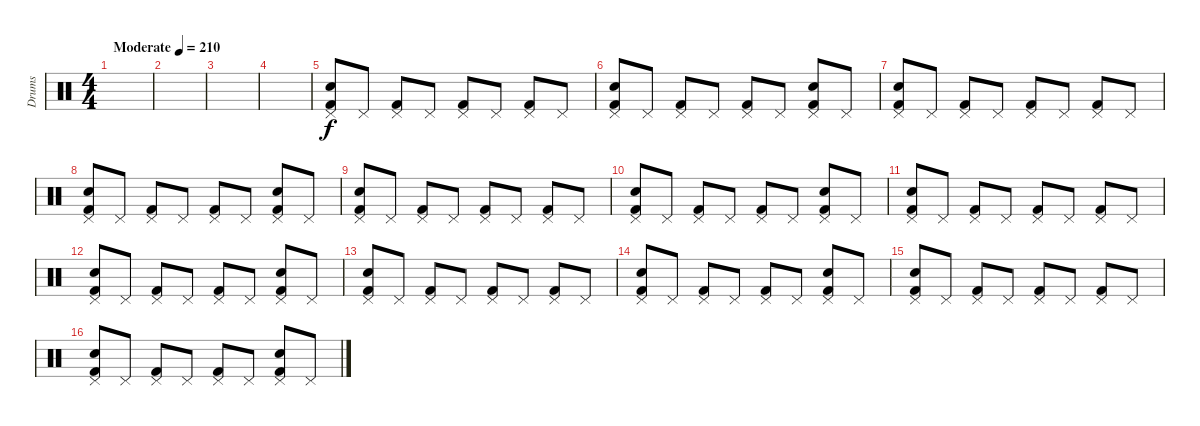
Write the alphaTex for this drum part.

\track ("Drums" "Drums") {instrument percussion}
\staff {score}
\articulation defaults
\ts (4 4)
\tempo (210 "Moderate")
\clef neutral
\ks c
|
|
|
|
("Kick (hit) 2" "Pedal Hi-Hat (hit)" "Snare (hit) 2").8 "Pedal Hi-Hat (hit)".8 ("Kick (hit) 2" "Pedal Hi-Hat (hit)").8 "Pedal Hi-Hat (hit)".8 ("Kick (hit) 2" "Pedal Hi-Hat (hit)").8 "Pedal Hi-Hat (hit)".8 ("Kick (hit) 2" "Pedal Hi-Hat (hit)").8 "Pedal Hi-Hat (hit)".8 |
("Kick (hit) 2" "Pedal Hi-Hat (hit)" "Snare (hit) 2").8 "Pedal Hi-Hat (hit)".8 ("Kick (hit) 2" "Pedal Hi-Hat (hit)").8 "Pedal Hi-Hat (hit)".8 ("Kick (hit) 2" "Pedal Hi-Hat (hit)").8 "Pedal Hi-Hat (hit)".8 ("Kick (hit) 2" "Pedal Hi-Hat (hit)" "Snare (hit) 2").8 "Pedal Hi-Hat (hit)".8 |
("Kick (hit) 2" "Pedal Hi-Hat (hit)" "Snare (hit) 2").8 "Pedal Hi-Hat (hit)".8 ("Kick (hit) 2" "Pedal Hi-Hat (hit)").8 "Pedal Hi-Hat (hit)".8 ("Kick (hit) 2" "Pedal Hi-Hat (hit)").8 "Pedal Hi-Hat (hit)".8 ("Kick (hit) 2" "Pedal Hi-Hat (hit)").8 "Pedal Hi-Hat (hit)".8 |
("Kick (hit) 2" "Pedal Hi-Hat (hit)" "Snare (hit) 2").8 "Pedal Hi-Hat (hit)".8 ("Kick (hit) 2" "Pedal Hi-Hat (hit)").8 "Pedal Hi-Hat (hit)".8 ("Kick (hit) 2" "Pedal Hi-Hat (hit)").8 "Pedal Hi-Hat (hit)".8 ("Kick (hit) 2" "Pedal Hi-Hat (hit)" "Snare (hit) 2").8 "Pedal Hi-Hat (hit)".8 |
("Kick (hit) 2" "Pedal Hi-Hat (hit)" "Snare (hit) 2").8 "Pedal Hi-Hat (hit)".8 ("Kick (hit) 2" "Pedal Hi-Hat (hit)").8 "Pedal Hi-Hat (hit)".8 ("Kick (hit) 2" "Pedal Hi-Hat (hit)").8 "Pedal Hi-Hat (hit)".8 ("Kick (hit) 2" "Pedal Hi-Hat (hit)").8 "Pedal Hi-Hat (hit)".8 |
("Kick (hit) 2" "Pedal Hi-Hat (hit)" "Snare (hit) 2").8 "Pedal Hi-Hat (hit)".8 ("Kick (hit) 2" "Pedal Hi-Hat (hit)").8 "Pedal Hi-Hat (hit)".8 ("Kick (hit) 2" "Pedal Hi-Hat (hit)").8 "Pedal Hi-Hat (hit)".8 ("Kick (hit) 2" "Pedal Hi-Hat (hit)" "Snare (hit) 2").8 "Pedal Hi-Hat (hit)".8 |
("Kick (hit) 2" "Pedal Hi-Hat (hit)" "Snare (hit) 2").8 "Pedal Hi-Hat (hit)".8 ("Kick (hit) 2" "Pedal Hi-Hat (hit)").8 "Pedal Hi-Hat (hit)".8 ("Kick (hit) 2" "Pedal Hi-Hat (hit)").8 "Pedal Hi-Hat (hit)".8 ("Kick (hit) 2" "Pedal Hi-Hat (hit)").8 "Pedal Hi-Hat (hit)".8 |
("Kick (hit) 2" "Pedal Hi-Hat (hit)" "Snare (hit) 2").8 "Pedal Hi-Hat (hit)".8 ("Kick (hit) 2" "Pedal Hi-Hat (hit)").8 "Pedal Hi-Hat (hit)".8 ("Kick (hit) 2" "Pedal Hi-Hat (hit)").8 "Pedal Hi-Hat (hit)".8 ("Kick (hit) 2" "Pedal Hi-Hat (hit)" "Snare (hit) 2").8 "Pedal Hi-Hat (hit)".8 |
("Kick (hit) 2" "Pedal Hi-Hat (hit)" "Snare (hit) 2").8 "Pedal Hi-Hat (hit)".8 ("Kick (hit) 2" "Pedal Hi-Hat (hit)").8 "Pedal Hi-Hat (hit)".8 ("Kick (hit) 2" "Pedal Hi-Hat (hit)").8 "Pedal Hi-Hat (hit)".8 ("Kick (hit) 2" "Pedal Hi-Hat (hit)").8 "Pedal Hi-Hat (hit)".8 |
("Kick (hit) 2" "Pedal Hi-Hat (hit)" "Snare (hit) 2").8 "Pedal Hi-Hat (hit)".8 ("Kick (hit) 2" "Pedal Hi-Hat (hit)").8 "Pedal Hi-Hat (hit)".8 ("Kick (hit) 2" "Pedal Hi-Hat (hit)").8 "Pedal Hi-Hat (hit)".8 ("Kick (hit) 2" "Pedal Hi-Hat (hit)" "Snare (hit) 2").8 "Pedal Hi-Hat (hit)".8 |
("Kick (hit) 2" "Pedal Hi-Hat (hit)" "Snare (hit) 2").8 "Pedal Hi-Hat (hit)".8 ("Kick (hit) 2" "Pedal Hi-Hat (hit)").8 "Pedal Hi-Hat (hit)".8 ("Kick (hit) 2" "Pedal Hi-Hat (hit)").8 "Pedal Hi-Hat (hit)".8 ("Kick (hit) 2" "Pedal Hi-Hat (hit)").8 "Pedal Hi-Hat (hit)".8 |
("Kick (hit) 2" "Pedal Hi-Hat (hit)" "Snare (hit) 2").8 "Pedal Hi-Hat (hit)".8 ("Kick (hit) 2" "Pedal Hi-Hat (hit)").8 "Pedal Hi-Hat (hit)".8 ("Kick (hit) 2" "Pedal Hi-Hat (hit)").8 "Pedal Hi-Hat (hit)".8 ("Kick (hit) 2" "Pedal Hi-Hat (hit)" "Snare (hit) 2").8 "Pedal Hi-Hat (hit)".8
